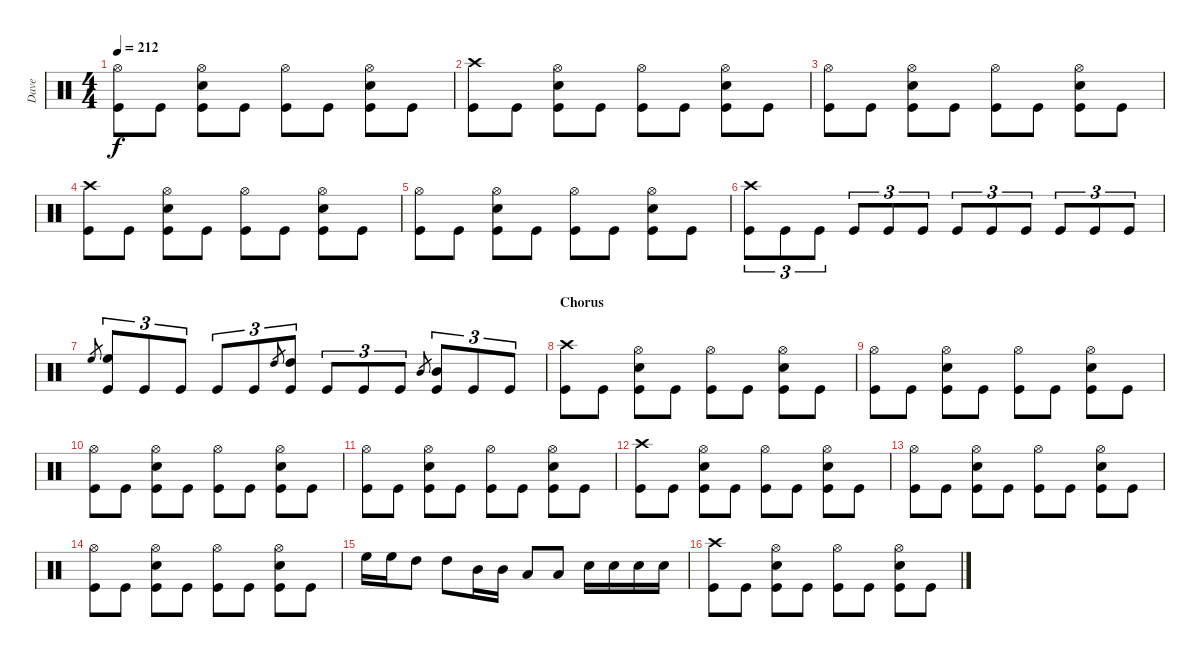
\track ("Dave" "Dave") {instrument percussion}
\staff {score}
\articulation defaults
\ts (4 4)
\tempo 212
\clef neutral
\ks c
("Hi-Hat (open)" "Kick (hit)").8{dy f} "Kick (hit)".8 ("Hi-Hat (open)" "Snare (hit) 2" "Kick (hit)").8 "Kick (hit)".8 ("Hi-Hat (open)" "Kick (hit)").8 "Kick (hit)".8 ("Hi-Hat (open)" "Snare (hit) 2" "Kick (hit)").8 "Kick (hit)".8 |
("Crash high (hit)" "Kick (hit)").8 "Kick (hit)".8 ("Hi-Hat (open)" "Snare (hit) 2" "Kick (hit)").8 "Kick (hit)".8 ("Hi-Hat (open)" "Kick (hit)").8 "Kick (hit)".8 ("Hi-Hat (open)" "Snare (hit) 2" "Kick (hit)").8 "Kick (hit)".8 |
("Hi-Hat (open)" "Kick (hit)").8 "Kick (hit)".8 ("Hi-Hat (open)" "Snare (hit) 2" "Kick (hit)").8 "Kick (hit)".8 ("Hi-Hat (open)" "Kick (hit)").8 "Kick (hit)".8 ("Hi-Hat (open)" "Snare (hit) 2" "Kick (hit)").8 "Kick (hit)".8 |
("Crash high (hit)" "Kick (hit)").8 "Kick (hit)".8 ("Hi-Hat (open)" "Snare (hit) 2" "Kick (hit)").8 "Kick (hit)".8 ("Hi-Hat (open)" "Kick (hit)").8 "Kick (hit)".8 ("Hi-Hat (open)" "Snare (hit) 2" "Kick (hit)").8 "Kick (hit)".8 |
("Hi-Hat (open)" "Kick (hit)").8 "Kick (hit)".8 ("Hi-Hat (open)" "Snare (hit) 2" "Kick (hit)").8 "Kick (hit)".8 ("Hi-Hat (open)" "Kick (hit)").8 "Kick (hit)".8 ("Hi-Hat (open)" "Snare (hit) 2" "Kick (hit)").8 "Kick (hit)".8 |
("Crash high (hit)" "Kick (hit)").8{tu (3 2)} "Kick (hit)".8{tu (3 2)} "Kick (hit)".8{tu (3 2)} "Kick (hit)".8{tu (3 2)} "Kick (hit)".8{tu (3 2)} "Kick (hit)".8{tu (3 2)} "Kick (hit)".8{tu (3 2)} "Kick (hit)".8{tu (3 2)} "Kick (hit)".8{tu (3 2)} "Kick (hit)".8{tu (3 2)} "Kick (hit)".8{tu (3 2)} "Kick (hit)".8{tu (3 2)} |
"High Floor Tom (hit)".8{gr} ("High Floor Tom (hit)" "Kick (hit)").8{tu (3 2)} "Kick (hit)".8{tu (3 2)} "Kick (hit)".8{tu (3 2)} "Kick (hit)".8{tu (3 2)} "Kick (hit)".8{tu (3 2)} "High Tom (hit)".8{gr} ("High Tom (hit)" "Kick (hit)").8{tu (3 2)} "Kick (hit)".8{tu (3 2)} "Kick (hit)".8{tu (3 2)} "Kick (hit)".8{tu (3 2)} "Mid Tom (hit)".8{gr} ("Mid Tom (hit)" "Kick (hit)").8{tu (3 2)} "Kick (hit)".8{tu (3 2)} "Kick (hit)".8{tu (3 2)} |
\section ("" "Chorus")
("Crash high (hit)" "Kick (hit)").8 "Kick (hit)".8 ("Hi-Hat (open)" "Snare (hit) 2" "Kick (hit)").8 "Kick (hit)".8 ("Hi-Hat (open)" "Kick (hit)").8 "Kick (hit)".8 ("Hi-Hat (open)" "Snare (hit) 2" "Kick (hit)").8 "Kick (hit)".8 |
("Hi-Hat (open)" "Kick (hit)").8 "Kick (hit)".8 ("Hi-Hat (open)" "Snare (hit) 2" "Kick (hit)").8 "Kick (hit)".8 ("Hi-Hat (open)" "Kick (hit)").8 "Kick (hit)".8 ("Hi-Hat (open)" "Snare (hit) 2" "Kick (hit)").8 "Kick (hit)".8 |
("Hi-Hat (open)" "Kick (hit)").8 "Kick (hit)".8 ("Hi-Hat (open)" "Snare (hit) 2" "Kick (hit)").8 "Kick (hit)".8 ("Hi-Hat (open)" "Kick (hit)").8 "Kick (hit)".8 ("Hi-Hat (open)" "Snare (hit) 2" "Kick (hit)").8 "Kick (hit)".8 |
("Hi-Hat (open)" "Kick (hit)").8 "Kick (hit)".8 ("Hi-Hat (open)" "Snare (hit) 2" "Kick (hit)").8 "Kick (hit)".8 ("Hi-Hat (open)" "Kick (hit)").8 "Kick (hit)".8 ("Hi-Hat (open)" "Snare (hit) 2" "Kick (hit)").8 "Kick (hit)".8 |
("Crash high (hit)" "Kick (hit)").8 "Kick (hit)".8 ("Hi-Hat (open)" "Snare (hit) 2" "Kick (hit)").8 "Kick (hit)".8 ("Hi-Hat (open)" "Kick (hit)").8 "Kick (hit)".8 ("Hi-Hat (open)" "Snare (hit) 2" "Kick (hit)").8 "Kick (hit)".8 |
("Hi-Hat (open)" "Kick (hit)").8 "Kick (hit)".8 ("Hi-Hat (open)" "Snare (hit) 2" "Kick (hit)").8 "Kick (hit)".8 ("Hi-Hat (open)" "Kick (hit)").8 "Kick (hit)".8 ("Hi-Hat (open)" "Snare (hit) 2" "Kick (hit)").8 "Kick (hit)".8 |
("Hi-Hat (open)" "Kick (hit)").8 "Kick (hit)".8 ("Hi-Hat (open)" "Snare (hit) 2" "Kick (hit)").8 "Kick (hit)".8 ("Hi-Hat (open)" "Kick (hit)").8 "Kick (hit)".8 ("Hi-Hat (open)" "Snare (hit) 2" "Kick (hit)").8 "Kick (hit)".8 |
"High Floor Tom (hit)".16 "High Floor Tom (hit)".16 "High Tom (hit)".8 "High Tom (hit)".8 "Mid Tom (hit)".16 "Mid Tom (hit)".16 "Low Tom (hit)".8 "Low Tom (hit)".8 "Snare (hit) 2".16 "Snare (hit) 2".16 "Snare (hit) 2".16 "Snare (hit) 2".16 |
("Crash high (hit)" "Kick (hit)").8 "Kick (hit)".8 ("Hi-Hat (open)" "Snare (hit) 2" "Kick (hit)").8 "Kick (hit)".8 ("Hi-Hat (open)" "Kick (hit)").8 "Kick (hit)".8 ("Hi-Hat (open)" "Snare (hit) 2" "Kick (hit)").8 "Kick (hit)".8
